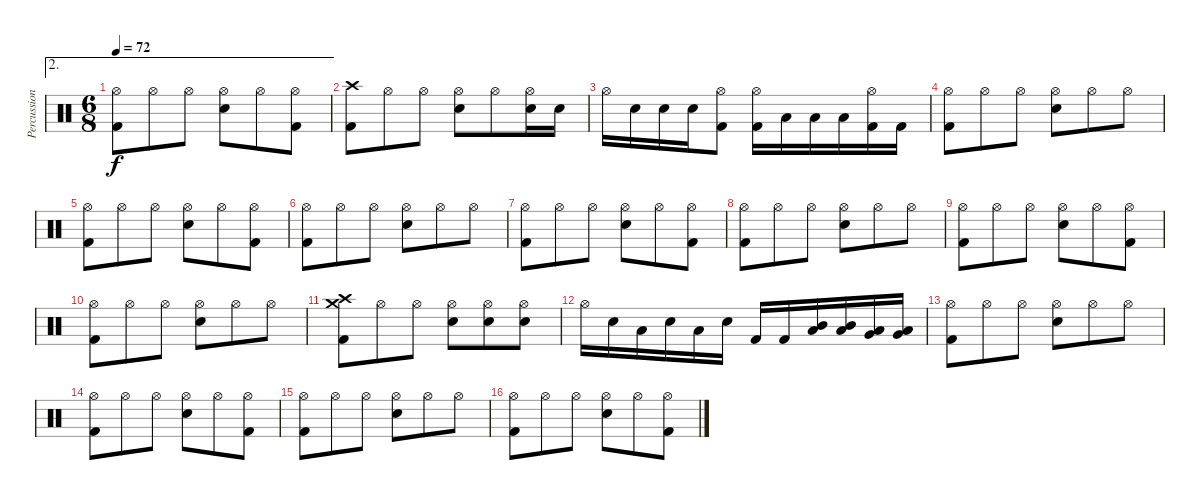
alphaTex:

\track ("Percussioni" "Percussion") {instrument percussion}
\staff {score}
\articulation defaults
\ae 2
\ts (6 8)
\tempo 72
\clef neutral
\ks c
("Hi-Hat (open)" "Kick (hit) 2").8{dy f} "Hi-Hat (open)".8 "Hi-Hat (open)".8 ("Hi-Hat (open)" "Electric Snare (hit)").8 "Hi-Hat (open)".8 ("Hi-Hat (open)" "Kick (hit) 2").8 |
("Crash high (hit)" "Kick (hit) 2").8 "Hi-Hat (open)".8 "Hi-Hat (open)".8 ("Hi-Hat (open)" "Electric Snare (hit)").8 "Hi-Hat (open)".8 ("Hi-Hat (open)" "Electric Snare (hit)").16 "Electric Snare (hit)".16 |
"Hi-Hat (open)".16 "Electric Snare (hit)".16 "Electric Snare (hit)".16 "Electric Snare (hit)".16 ("Hi-Hat (open)" "Kick (hit) 2").8 ("Hi-Hat (open)" "Kick (hit) 2").16 "Low Tom (hit)".16 "Low Tom (hit)".16 "Low Tom (hit)".16 ("Hi-Hat (open)" "Kick (hit) 2").16 "Kick (hit) 2".16 |
("Hi-Hat (open)" "Kick (hit) 2").8 "Hi-Hat (open)".8 "Hi-Hat (open)".8 ("Hi-Hat (open)" "Electric Snare (hit)").8 "Hi-Hat (open)".8 "Hi-Hat (open)".8 |
("Hi-Hat (open)" "Kick (hit) 2").8 "Hi-Hat (open)".8 "Hi-Hat (open)".8 ("Hi-Hat (open)" "Electric Snare (hit)").8 "Hi-Hat (open)".8 ("Hi-Hat (open)" "Kick (hit) 2").8 |
("Hi-Hat (open)" "Kick (hit) 2").8 "Hi-Hat (open)".8 "Hi-Hat (open)".8 ("Hi-Hat (open)" "Electric Snare (hit)").8 "Hi-Hat (open)".8 "Hi-Hat (open)".8 |
("Hi-Hat (open)" "Kick (hit) 2").8 "Hi-Hat (open)".8 "Hi-Hat (open)".8 ("Hi-Hat (open)" "Electric Snare (hit)").8 "Hi-Hat (open)".8 ("Hi-Hat (open)" "Kick (hit) 2").8 |
("Hi-Hat (open)" "Kick (hit) 2").8 "Hi-Hat (open)".8 "Hi-Hat (open)".8 ("Hi-Hat (open)" "Electric Snare (hit)").8 "Hi-Hat (open)".8 "Hi-Hat (open)".8 |
("Hi-Hat (open)" "Kick (hit) 2").8 "Hi-Hat (open)".8 "Hi-Hat (open)".8 ("Hi-Hat (open)" "Electric Snare (hit)").8 "Hi-Hat (open)".8 ("Hi-Hat (open)" "Kick (hit) 2").8 |
("Hi-Hat (open)" "Kick (hit) 2").8 "Hi-Hat (open)".8 "Hi-Hat (open)".8 ("Hi-Hat (open)" "Electric Snare (hit)").8 "Hi-Hat (open)".8 "Hi-Hat (open)".8 |
("Crash high (hit)" "Crash medium (hit)" "Kick (hit) 2").8 "Hi-Hat (open)".8 "Hi-Hat (open)".8 ("Hi-Hat (open)" "Electric Snare (hit)").8 ("Hi-Hat (open)" "Electric Snare (hit)").8 ("Hi-Hat (open)" "Electric Snare (hit)").8 |
"Hi-Hat (open)".16 "Electric Snare (hit)".16 "Low Tom (hit)".16 "Electric Snare (hit)".16 "Low Tom (hit)".16 "Electric Snare (hit)".16 "Kick (hit) 2".16 "Kick (hit) 2".16 ("Mid Tom (hit)" "Low Tom (hit)").16 ("Mid Tom (hit)" "Low Tom (hit)").16 ("Low Tom (hit)" "Very Low Tom (hit)").16 ("Low Tom (hit)" "Very Low Tom (hit)").16 |
("Hi-Hat (open)" "Kick (hit) 2").8 "Hi-Hat (open)".8 "Hi-Hat (open)".8 ("Hi-Hat (open)" "Electric Snare (hit)").8 "Hi-Hat (open)".8 "Hi-Hat (open)".8 |
("Hi-Hat (open)" "Kick (hit) 2").8 "Hi-Hat (open)".8 "Hi-Hat (open)".8 ("Hi-Hat (open)" "Electric Snare (hit)").8 "Hi-Hat (open)".8 ("Hi-Hat (open)" "Kick (hit) 2").8 |
("Hi-Hat (open)" "Kick (hit) 2").8 "Hi-Hat (open)".8 "Hi-Hat (open)".8 ("Hi-Hat (open)" "Electric Snare (hit)").8 "Hi-Hat (open)".8 "Hi-Hat (open)".8 |
("Hi-Hat (open)" "Kick (hit) 2").8 "Hi-Hat (open)".8 "Hi-Hat (open)".8 ("Hi-Hat (open)" "Electric Snare (hit)").8 "Hi-Hat (open)".8 ("Hi-Hat (open)" "Kick (hit) 2").8
